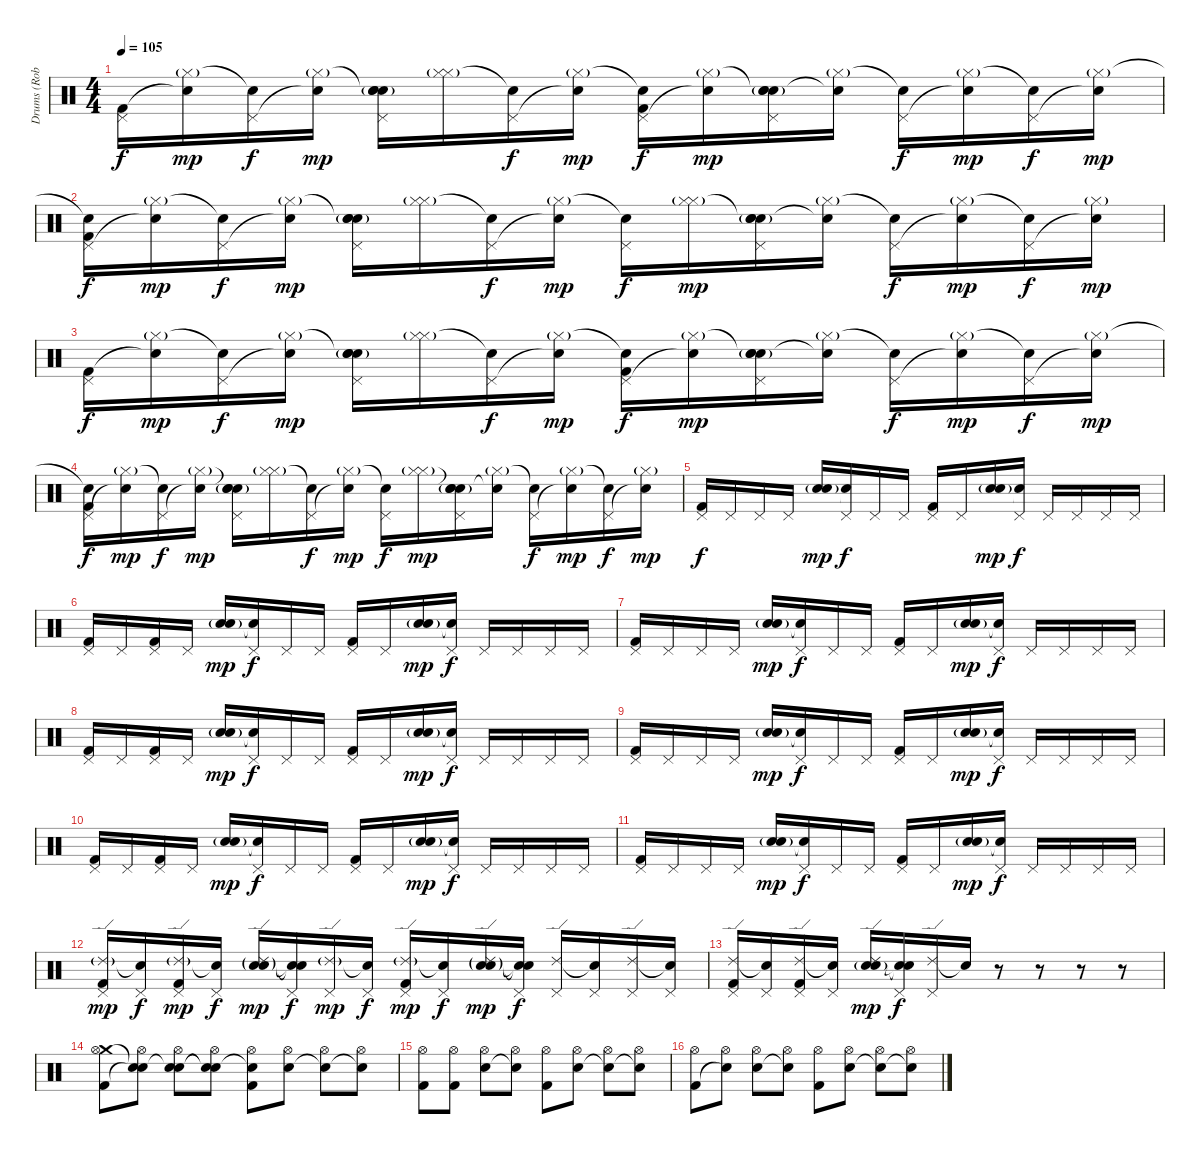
\track ("Drums (Rob Bourdon)" "Drums (Rob") {instrument percussion}
\staff {score}
\articulation defaults
\ts (4 4)
\tempo 105
\clef neutral
\ks c
("Pedal Hi-Hat (hit)" "Kick (hit) 2").16{dy f} ("Hi-Hat (closed)"{g} "Snare (hit)"{t}).16{dy mp} ("Snare (hit)"{t} "Pedal Hi-Hat (hit)").16{dy f} ("Hi-Hat (closed)"{g} "Snare (hit)"{t}).16{dy mp} ("Snare (hit)"{t} "Electric Snare (hit)"{g} "Pedal Hi-Hat (hit)" "Hand Clap (hit)"{g}).16 ("Hi-Hat (closed)"{g} "Hi-Hat (closed)").16 ("Snare (hit)"{t} "Pedal Hi-Hat (hit)").16{dy f} ("Hi-Hat (closed)"{g} "Snare (hit)"{t}).16{dy mp} ("Snare (hit)"{t} "Pedal Hi-Hat (hit)" "Kick (hit) 2").16{dy f} ("Hi-Hat (closed)"{g} "Snare (hit)"{t}).16{dy mp} ("Snare (hit)"{t} "Electric Snare (hit)"{g} "Pedal Hi-Hat (hit)" "Hand Clap (hit)"{g}).16 ("Hi-Hat (closed)"{g} "Snare (hit)"{t}).16 ("Snare (hit)"{t} "Pedal Hi-Hat (hit)").16{dy f} ("Hi-Hat (closed)"{g} "Snare (hit)"{t}).16{dy mp} ("Snare (hit)"{t} "Pedal Hi-Hat (hit)").16{dy f} ("Hi-Hat (closed)"{g} "Snare (hit)"{t}).16{dy mp} |
("Snare (hit)"{t} "Pedal Hi-Hat (hit)" "Kick (hit) 2").16{dy f} ("Hi-Hat (closed)"{g} "Snare (hit)"{t}).16{dy mp} ("Snare (hit)"{t} "Pedal Hi-Hat (hit)").16{dy f} ("Hi-Hat (closed)"{g} "Snare (hit)"{t}).16{dy mp} ("Snare (hit)"{t} "Electric Snare (hit)"{g} "Pedal Hi-Hat (hit)" "Hand Clap (hit)"{g}).16 ("Hi-Hat (closed)"{g} "Hi-Hat (closed)").16 ("Snare (hit)"{t} "Pedal Hi-Hat (hit)").16{dy f} ("Hi-Hat (closed)"{g} "Snare (hit)"{t}).16{dy mp} ("Snare (hit)"{t} "Pedal Hi-Hat (hit)").16{dy f} ("Hi-Hat (closed)"{g} "Hi-Hat (closed)").16{dy mp} ("Snare (hit)"{t} "Electric Snare (hit)"{g} "Pedal Hi-Hat (hit)" "Hand Clap (hit)"{g}).16 ("Hi-Hat (closed)"{g} "Snare (hit)"{t}).16 ("Snare (hit)"{t} "Pedal Hi-Hat (hit)").16{dy f} ("Hi-Hat (closed)"{g} "Snare (hit)"{t}).16{dy mp} ("Snare (hit)"{t} "Pedal Hi-Hat (hit)").16{dy f} ("Hi-Hat (closed)"{g} "Snare (hit)"{t}).16{dy mp} |
("Pedal Hi-Hat (hit)" "Kick (hit) 2").16{dy f} ("Hi-Hat (closed)"{g} "Snare (hit)"{t}).16{dy mp} ("Snare (hit)"{t} "Pedal Hi-Hat (hit)").16{dy f} ("Hi-Hat (closed)"{g} "Snare (hit)"{t}).16{dy mp} ("Snare (hit)"{t} "Electric Snare (hit)"{g} "Pedal Hi-Hat (hit)" "Hand Clap (hit)"{g}).16 ("Hi-Hat (closed)"{g} "Hi-Hat (closed)").16 ("Snare (hit)"{t} "Pedal Hi-Hat (hit)").16{dy f} ("Hi-Hat (closed)"{g} "Snare (hit)"{t}).16{dy mp} ("Snare (hit)"{t} "Pedal Hi-Hat (hit)" "Kick (hit) 2").16{dy f} ("Hi-Hat (closed)"{g} "Snare (hit)"{t}).16{dy mp} ("Snare (hit)"{t} "Electric Snare (hit)"{g} "Pedal Hi-Hat (hit)" "Hand Clap (hit)"{g}).16 ("Hi-Hat (closed)"{g} "Snare (hit)"{t}).16 ("Snare (hit)"{t} "Pedal Hi-Hat (hit)").16{dy f} ("Hi-Hat (closed)"{g} "Snare (hit)"{t}).16{dy mp} ("Snare (hit)"{t} "Pedal Hi-Hat (hit)").16{dy f} ("Hi-Hat (closed)"{g} "Snare (hit)"{t}).16{dy mp} |
("Snare (hit)"{t} "Pedal Hi-Hat (hit)" "Kick (hit) 2").16{dy f} ("Hi-Hat (closed)"{g} "Snare (hit)"{t}).16{dy mp} ("Snare (hit)"{t} "Pedal Hi-Hat (hit)").16{dy f} ("Hi-Hat (closed)"{g} "Snare (hit)"{t}).16{dy mp} ("Snare (hit)"{t} "Electric Snare (hit)"{g} "Pedal Hi-Hat (hit)" "Hand Clap (hit)"{g}).16 ("Hi-Hat (closed)"{g} "Hi-Hat (closed)").16 ("Snare (hit)"{t} "Pedal Hi-Hat (hit)").16{dy f} ("Hi-Hat (closed)"{g} "Snare (hit)"{t}).16{dy mp} ("Snare (hit)"{t} "Pedal Hi-Hat (hit)").16{dy f} ("Hi-Hat (closed)"{g} "Hi-Hat (closed)").16{dy mp} ("Snare (hit)"{t} "Electric Snare (hit)"{g} "Pedal Hi-Hat (hit)" "Hand Clap (hit)"{g}).16 ("Hi-Hat (closed)"{g} "Snare (hit)"{t}).16 ("Snare (hit)"{t} "Pedal Hi-Hat (hit)").16{dy f} ("Hi-Hat (closed)"{g} "Snare (hit)"{t}).16{dy mp} ("Snare (hit)"{t} "Pedal Hi-Hat (hit)").16{dy f} ("Hi-Hat (closed)"{g} "Snare (hit)"{t}).16{dy mp} |
("Pedal Hi-Hat (hit)" "Kick (hit) 2").16{dy f} "Pedal Hi-Hat (hit)".16 "Pedal Hi-Hat (hit)".16 "Pedal Hi-Hat (hit)".16 ("Hand Clap (hit)"{g} "Electric Snare (hit)"{g}).16{dy mp} ("Pedal Hi-Hat (hit)" "Snare (hit)"{t}).16{dy f} "Pedal Hi-Hat (hit)".16 "Pedal Hi-Hat (hit)".16 ("Pedal Hi-Hat (hit)" "Kick (hit) 2").16 "Pedal Hi-Hat (hit)".16 ("Hand Clap (hit)"{g} "Electric Snare (hit)"{g}).16{dy mp} ("Pedal Hi-Hat (hit)" "Snare (hit)"{t}).16{dy f} "Pedal Hi-Hat (hit)".16 "Pedal Hi-Hat (hit)".16 "Pedal Hi-Hat (hit)".16 "Pedal Hi-Hat (hit)".16 |
("Pedal Hi-Hat (hit)" "Kick (hit) 2").16 "Pedal Hi-Hat (hit)".16 ("Pedal Hi-Hat (hit)" "Kick (hit) 2").16 "Pedal Hi-Hat (hit)".16 ("Hand Clap (hit)"{g} "Electric Snare (hit)"{g}).16{dy mp} ("Pedal Hi-Hat (hit)" "Snare (hit)"{t}).16{dy f} "Pedal Hi-Hat (hit)".16 "Pedal Hi-Hat (hit)".16 ("Pedal Hi-Hat (hit)" "Kick (hit) 2").16 "Pedal Hi-Hat (hit)".16 ("Hand Clap (hit)"{g} "Electric Snare (hit)"{g}).16{dy mp} ("Pedal Hi-Hat (hit)" "Snare (hit)"{t}).16{dy f} "Pedal Hi-Hat (hit)".16 "Pedal Hi-Hat (hit)".16 "Pedal Hi-Hat (hit)".16 "Pedal Hi-Hat (hit)".16 |
("Pedal Hi-Hat (hit)" "Kick (hit) 2").16 "Pedal Hi-Hat (hit)".16 "Pedal Hi-Hat (hit)".16 "Pedal Hi-Hat (hit)".16 ("Hand Clap (hit)"{g} "Electric Snare (hit)"{g}).16{dy mp} ("Pedal Hi-Hat (hit)" "Snare (hit)"{t}).16{dy f} "Pedal Hi-Hat (hit)".16 "Pedal Hi-Hat (hit)".16 ("Pedal Hi-Hat (hit)" "Kick (hit) 2").16 "Pedal Hi-Hat (hit)".16 ("Hand Clap (hit)"{g} "Electric Snare (hit)"{g}).16{dy mp} ("Pedal Hi-Hat (hit)" "Snare (hit)"{t}).16{dy f} "Pedal Hi-Hat (hit)".16 "Pedal Hi-Hat (hit)".16 "Pedal Hi-Hat (hit)".16 "Pedal Hi-Hat (hit)".16 |
("Pedal Hi-Hat (hit)" "Kick (hit) 2").16 "Pedal Hi-Hat (hit)".16 ("Pedal Hi-Hat (hit)" "Kick (hit) 2").16 "Pedal Hi-Hat (hit)".16 ("Hand Clap (hit)"{g} "Electric Snare (hit)"{g}).16{dy mp} ("Pedal Hi-Hat (hit)" "Snare (hit)"{t}).16{dy f} "Pedal Hi-Hat (hit)".16 "Pedal Hi-Hat (hit)".16 ("Pedal Hi-Hat (hit)" "Kick (hit) 2").16 "Pedal Hi-Hat (hit)".16 ("Hand Clap (hit)"{g} "Electric Snare (hit)"{g}).16{dy mp} ("Pedal Hi-Hat (hit)" "Snare (hit)"{t}).16{dy f} "Pedal Hi-Hat (hit)".16 "Pedal Hi-Hat (hit)".16 "Pedal Hi-Hat (hit)".16 "Pedal Hi-Hat (hit)".16 |
("Pedal Hi-Hat (hit)" "Kick (hit) 2").16 "Pedal Hi-Hat (hit)".16 "Pedal Hi-Hat (hit)".16 "Pedal Hi-Hat (hit)".16 ("Hand Clap (hit)"{g} "Electric Snare (hit)"{g}).16{dy mp} ("Pedal Hi-Hat (hit)" "Snare (hit)"{t}).16{dy f} "Pedal Hi-Hat (hit)".16 "Pedal Hi-Hat (hit)".16 ("Pedal Hi-Hat (hit)" "Kick (hit) 2").16 "Pedal Hi-Hat (hit)".16 ("Hand Clap (hit)"{g} "Electric Snare (hit)"{g}).16{dy mp} ("Pedal Hi-Hat (hit)" "Snare (hit)"{t}).16{dy f} "Pedal Hi-Hat (hit)".16 "Pedal Hi-Hat (hit)".16 "Pedal Hi-Hat (hit)".16 "Pedal Hi-Hat (hit)".16 |
("Pedal Hi-Hat (hit)" "Kick (hit) 2").16 "Pedal Hi-Hat (hit)".16 ("Pedal Hi-Hat (hit)" "Kick (hit) 2").16 "Pedal Hi-Hat (hit)".16 ("Hand Clap (hit)"{g} "Electric Snare (hit)"{g}).16{dy mp} ("Pedal Hi-Hat (hit)" "Snare (hit)"{t}).16{dy f} "Pedal Hi-Hat (hit)".16 "Pedal Hi-Hat (hit)".16 ("Pedal Hi-Hat (hit)" "Kick (hit) 2").16 "Pedal Hi-Hat (hit)".16 ("Hand Clap (hit)"{g} "Electric Snare (hit)"{g}).16{dy mp} ("Pedal Hi-Hat (hit)" "Snare (hit)"{t}).16{dy f} "Pedal Hi-Hat (hit)".16 "Pedal Hi-Hat (hit)".16 "Pedal Hi-Hat (hit)".16 "Pedal Hi-Hat (hit)".16 |
("Pedal Hi-Hat (hit)" "Kick (hit) 2").16 "Pedal Hi-Hat (hit)".16 "Pedal Hi-Hat (hit)".16 "Pedal Hi-Hat (hit)".16 ("Hand Clap (hit)"{g} "Electric Snare (hit)"{g}).16{dy mp} ("Pedal Hi-Hat (hit)" "Snare (hit)"{t}).16{dy f} "Pedal Hi-Hat (hit)".16 "Pedal Hi-Hat (hit)".16 ("Pedal Hi-Hat (hit)" "Kick (hit) 2").16 "Pedal Hi-Hat (hit)".16 ("Hand Clap (hit)"{g} "Electric Snare (hit)"{g}).16{dy mp} ("Pedal Hi-Hat (hit)" "Snare (hit)"{t}).16{dy f} "Pedal Hi-Hat (hit)".16 "Pedal Hi-Hat (hit)".16 "Pedal Hi-Hat (hit)".16 "Pedal Hi-Hat (hit)".16 |
("Ride (edge) 2"{g} "Pedal Hi-Hat (hit)" "Kick (hit) 2").16{dy mp} ("Snare (hit)"{t} "Pedal Hi-Hat (hit)").16{dy f} ("Ride (edge) 2"{g} "Pedal Hi-Hat (hit)" "Kick (hit) 2").16{dy mp} ("Snare (hit)"{t} "Pedal Hi-Hat (hit)").16{dy f} ("Ride (edge) 2"{g} "Hand Clap (hit)"{g} "Electric Snare (hit)"{g}).16{dy mp} ("Snare (hit)"{t} "Pedal Hi-Hat (hit)" "Snare (hit)"{t}).16{dy f} ("Ride (edge) 2"{g} "Pedal Hi-Hat (hit)").16{dy mp} ("Snare (hit)"{t} "Pedal Hi-Hat (hit)").16{dy f} ("Ride (edge) 2"{g} "Pedal Hi-Hat (hit)" "Kick (hit) 2").16{dy mp} ("Snare (hit)"{t} "Pedal Hi-Hat (hit)").16{dy f} ("Ride (edge) 2"{g} "Hand Clap (hit)"{g} "Electric Snare (hit)"{g}).16{dy mp} ("Snare (hit)"{t} "Pedal Hi-Hat (hit)" "Snare (hit)"{t}).16{dy f} ("Ride (edge) 2" "Pedal Hi-Hat (hit)").16 ("Snare (hit)"{t} "Pedal Hi-Hat (hit)").16 ("Ride (edge) 2" "Pedal Hi-Hat (hit)").16 ("Snare (hit)"{t} "Pedal Hi-Hat (hit)").16 |
("Ride (edge) 2" "Pedal Hi-Hat (hit)" "Kick (hit) 2").16 ("Snare (hit)"{t} "Pedal Hi-Hat (hit)").16 ("Ride (edge) 2" "Pedal Hi-Hat (hit)" "Kick (hit) 2").16 ("Snare (hit)"{t} "Pedal Hi-Hat (hit)").16 ("Ride (edge) 2" "Hand Clap (hit)"{g} "Electric Snare (hit)"{g}).16{dy mp} ("Snare (hit)"{t} "Pedal Hi-Hat (hit)" "Snare (hit)"{t}).16{dy f} ("Ride (edge) 2" "Pedal Hi-Hat (hit)").16 "Snare (hit)"{t}.16 r.8 r.8 r.8 r.8 |
("Crash medium (hit)" "Hi-Hat (open)" "Kick (hit) 2").8 ("Snare (hit)"{t} "Hi-Hat (open)" "Snare (hit)"{t}).8 ("Snare (hit)"{t} "Hi-Hat (open)" "Electric Snare (hit)").8 ("Snare (hit)"{t} "Hi-Hat (open)" "Snare (hit)"{t}).8 ("Snare (hit)"{t} "Hi-Hat (open)" "Kick (hit) 2").8 ("Hi-Hat (open)" "Electric Snare (hit)").8 ("Hi-Hat (open)" "Snare (hit)"{t}).8 ("Hi-Hat (open)" "Snare (hit)"{t}).8 |
("Hi-Hat (open)" "Kick (hit) 2").8 ("Hi-Hat (open)" "Kick (hit) 2").8 ("Hi-Hat (open)" "Electric Snare (hit)").8 ("Hi-Hat (open)" "Snare (hit)"{t}).8 ("Hi-Hat (open)" "Kick (hit) 2").8 ("Hi-Hat (open)" "Electric Snare (hit)").8 ("Hi-Hat (open)" "Snare (hit)"{t}).8 ("Hi-Hat (open)" "Snare (hit)"{t}).8 |
("Hi-Hat (open)" "Kick (hit) 2").8 ("Hi-Hat (open)" "Snare (hit)"{t}).8 ("Hi-Hat (open)" "Electric Snare (hit)").8 ("Hi-Hat (open)" "Snare (hit)"{t}).8 ("Hi-Hat (open)" "Kick (hit) 2").8 ("Hi-Hat (open)" "Electric Snare (hit)").8 ("Hi-Hat (open)" "Snare (hit)"{t}).8 ("Hi-Hat (open)" "Snare (hit)"{t}).8
